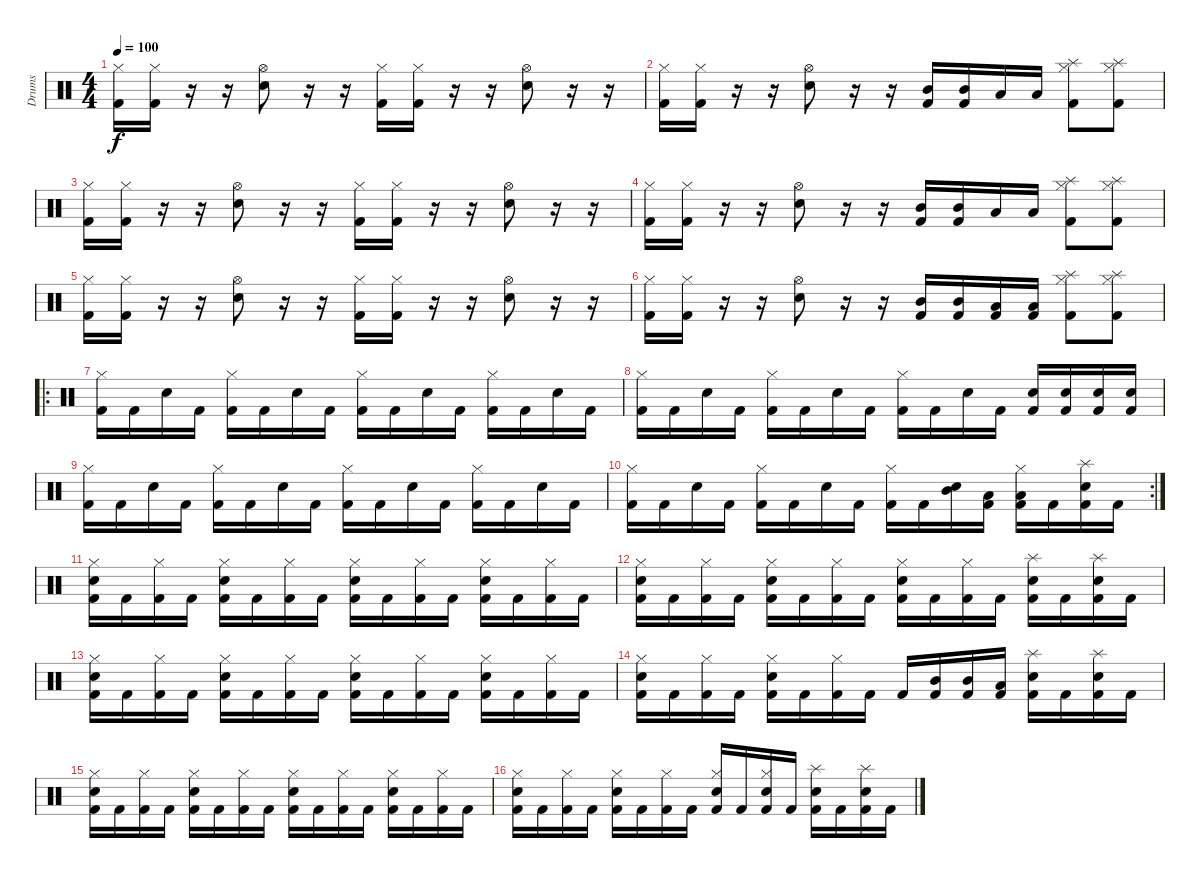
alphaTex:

\track ("Drums" "Drums") {instrument percussion}
\staff {score}
\articulation defaults
\ts (4 4)
\tempo 100
\clef neutral
\ks c
("Kick (hit) 2" "Hi-Hat (closed)").16{dy f} ("Kick (hit) 2" "Hi-Hat (closed)").16 r.16 r.16 ("Snare (hit) 2" "Hi-Hat (open)").8 r.16 r.16 ("Kick (hit) 2" "Hi-Hat (closed)").16 ("Kick (hit) 2" "Hi-Hat (closed)").16 r.16 r.16 ("Snare (hit) 2" "Hi-Hat (open)").8 r.16 r.16 |
("Kick (hit) 2" "Hi-Hat (closed)").16 ("Kick (hit) 2" "Hi-Hat (closed)").16 r.16 r.16 ("Snare (hit) 2" "Hi-Hat (open)").8 r.16 r.16 ("Kick (hit) 2" "Mid Tom (hit)").16 ("Kick (hit) 2" "Mid Tom (hit)").16 "Low Tom (hit)".16 "Low Tom (hit)".16 ("Kick (hit) 2" "Splash (hit)" "Hi-Hat (closed)").8 ("Kick (hit) 2" "Splash (hit)" "Hi-Hat (closed)").8 |
("Kick (hit) 2" "Hi-Hat (closed)").16 ("Kick (hit) 2" "Hi-Hat (closed)").16 r.16 r.16 ("Snare (hit) 2" "Hi-Hat (open)").8 r.16 r.16 ("Kick (hit) 2" "Hi-Hat (closed)").16 ("Kick (hit) 2" "Hi-Hat (closed)").16 r.16 r.16 ("Snare (hit) 2" "Hi-Hat (open)").8 r.16 r.16 |
("Kick (hit) 2" "Hi-Hat (closed)").16 ("Kick (hit) 2" "Hi-Hat (closed)").16 r.16 r.16 ("Snare (hit) 2" "Hi-Hat (open)").8 r.16 r.16 ("Kick (hit) 2" "Mid Tom (hit)").16 ("Kick (hit) 2" "Mid Tom (hit)").16 "Low Tom (hit)".16 "Low Tom (hit)".16 ("Kick (hit) 2" "Splash (hit)" "Hi-Hat (closed)").8 ("Kick (hit) 2" "Splash (hit)" "Hi-Hat (closed)").8 |
("Kick (hit) 2" "Hi-Hat (closed)").16 ("Kick (hit) 2" "Hi-Hat (closed)").16 r.16 r.16 ("Snare (hit) 2" "Hi-Hat (open)").8 r.16 r.16 ("Kick (hit) 2" "Hi-Hat (closed)").16 ("Kick (hit) 2" "Hi-Hat (closed)").16 r.16 r.16 ("Snare (hit) 2" "Hi-Hat (open)").8 r.16 r.16 |
("Kick (hit) 2" "Hi-Hat (closed)").16 ("Kick (hit) 2" "Hi-Hat (closed)").16 r.16 r.16 ("Snare (hit) 2" "Hi-Hat (open)").8 r.16 r.16 ("Kick (hit) 2" "Mid Tom (hit)").16 ("Kick (hit) 2" "Mid Tom (hit)").16 ("Kick (hit) 2" "Low Tom (hit)").16 ("Kick (hit) 2" "Low Tom (hit)").16 ("Kick (hit) 2" "Splash (hit)" "Hi-Hat (closed)").8 ("Kick (hit) 2" "Splash (hit)" "Hi-Hat (closed)").8 |
\ro
("Kick (hit) 2" "Hi-Hat (closed)").16 "Kick (hit) 2".16 "Snare (hit) 2".16 "Kick (hit) 2".16 ("Kick (hit) 2" "Hi-Hat (closed)").16 "Kick (hit) 2".16 "Snare (hit) 2".16 "Kick (hit) 2".16 ("Kick (hit) 2" "Hi-Hat (closed)").16 "Kick (hit) 2".16 "Snare (hit) 2".16 "Kick (hit) 2".16 ("Kick (hit) 2" "Hi-Hat (closed)").16 "Kick (hit) 2".16 "Snare (hit) 2".16 "Kick (hit) 2".16 |
("Kick (hit) 2" "Hi-Hat (closed)").16 "Kick (hit) 2".16 "Snare (hit) 2".16 "Kick (hit) 2".16 ("Kick (hit) 2" "Hi-Hat (closed)").16 "Kick (hit) 2".16 "Snare (hit) 2".16 "Kick (hit) 2".16 ("Kick (hit) 2" "Hi-Hat (closed)").16 "Kick (hit) 2".16 "Snare (hit) 2".16 "Kick (hit) 2".16 ("Kick (hit) 2" "Snare (hit) 2").16 ("Kick (hit) 2" "Snare (hit) 2").16 ("Kick (hit) 2" "Snare (hit) 2").16 ("Kick (hit) 2" "Snare (hit) 2").16 |
("Kick (hit) 2" "Hi-Hat (closed)").16 "Kick (hit) 2".16 "Snare (hit) 2".16 "Kick (hit) 2".16 ("Kick (hit) 2" "Hi-Hat (closed)").16 "Kick (hit) 2".16 "Snare (hit) 2".16 "Kick (hit) 2".16 ("Kick (hit) 2" "Hi-Hat (closed)").16 "Kick (hit) 2".16 "Snare (hit) 2".16 "Kick (hit) 2".16 ("Kick (hit) 2" "Hi-Hat (closed)").16 "Kick (hit) 2".16 "Snare (hit) 2".16 "Kick (hit) 2".16 |
\rc 2
("Kick (hit) 2" "Hi-Hat (closed)").16 "Kick (hit) 2".16 "Snare (hit) 2".16 "Kick (hit) 2".16 ("Kick (hit) 2" "Hi-Hat (closed)").16 "Kick (hit) 2".16 "Snare (hit) 2".16 "Kick (hit) 2".16 ("Kick (hit) 2" "Hi-Hat (closed)").16 "Kick (hit) 2".16 ("Snare (hit) 2" "Mid Tom (hit)").16 ("Kick (hit) 2" "Low Tom (hit)").16 ("Kick (hit) 2" "Low Tom (hit)" "Hi-Hat (closed)").16 "Kick (hit) 2".16 ("Kick (hit) 2" "Splash (hit)" "Snare (hit) 2").16 "Kick (hit) 2".16 |
("Kick (hit) 2" "Hi-Hat (closed)" "Snare (hit) 2").16 "Kick (hit) 2".16 ("Kick (hit) 2" "Hi-Hat (closed)").16 "Kick (hit) 2".16 ("Kick (hit) 2" "Hi-Hat (closed)" "Snare (hit) 2").16 "Kick (hit) 2".16 ("Kick (hit) 2" "Hi-Hat (closed)").16 "Kick (hit) 2".16 ("Kick (hit) 2" "Hi-Hat (closed)" "Snare (hit) 2").16 "Kick (hit) 2".16 ("Kick (hit) 2" "Hi-Hat (closed)").16 "Kick (hit) 2".16 ("Kick (hit) 2" "Hi-Hat (closed)" "Snare (hit) 2").16 "Kick (hit) 2".16 ("Kick (hit) 2" "Hi-Hat (closed)").16 "Kick (hit) 2".16 |
("Kick (hit) 2" "Hi-Hat (closed)" "Snare (hit) 2").16 "Kick (hit) 2".16 ("Kick (hit) 2" "Hi-Hat (closed)").16 "Kick (hit) 2".16 ("Kick (hit) 2" "Hi-Hat (closed)" "Snare (hit) 2").16 "Kick (hit) 2".16 ("Kick (hit) 2" "Hi-Hat (closed)").16 "Kick (hit) 2".16 ("Kick (hit) 2" "Hi-Hat (closed)" "Snare (hit) 2").16 "Kick (hit) 2".16 ("Kick (hit) 2" "Hi-Hat (closed)").16 "Kick (hit) 2".16 ("Kick (hit) 2" "Splash (hit)" "Snare (hit) 2").16 "Kick (hit) 2".16 ("Kick (hit) 2" "Splash (hit)" "Snare (hit) 2").16 "Kick (hit) 2".16 |
("Kick (hit) 2" "Hi-Hat (closed)" "Snare (hit) 2").16 "Kick (hit) 2".16 ("Kick (hit) 2" "Hi-Hat (closed)").16 "Kick (hit) 2".16 ("Kick (hit) 2" "Hi-Hat (closed)" "Snare (hit) 2").16 "Kick (hit) 2".16 ("Kick (hit) 2" "Hi-Hat (closed)").16 "Kick (hit) 2".16 ("Kick (hit) 2" "Hi-Hat (closed)" "Snare (hit) 2").16 "Kick (hit) 2".16 ("Kick (hit) 2" "Hi-Hat (closed)").16 "Kick (hit) 2".16 ("Kick (hit) 2" "Hi-Hat (closed)" "Snare (hit) 2").16 "Kick (hit) 2".16 ("Kick (hit) 2" "Hi-Hat (closed)").16 "Kick (hit) 2".16 |
("Kick (hit) 2" "Hi-Hat (closed)" "Snare (hit) 2").16 "Kick (hit) 2".16 ("Kick (hit) 2" "Hi-Hat (closed)").16 "Kick (hit) 2".16 ("Kick (hit) 2" "Hi-Hat (closed)" "Snare (hit) 2").16 "Kick (hit) 2".16 ("Kick (hit) 2" "Hi-Hat (closed)").16 "Kick (hit) 2".16 "Kick (hit) 2".16 ("Kick (hit) 2" "Mid Tom (hit)").16 ("Kick (hit) 2" "Mid Tom (hit)").16 ("Kick (hit) 2" "Low Tom (hit)").16 ("Kick (hit) 2" "Splash (hit)" "Snare (hit) 2").16 "Kick (hit) 2".16 ("Kick (hit) 2" "Splash (hit)" "Snare (hit) 2").16 "Kick (hit) 2".16 |
("Kick (hit) 2" "Hi-Hat (closed)" "Snare (hit) 2").16 "Kick (hit) 2".16 ("Kick (hit) 2" "Hi-Hat (closed)").16 "Kick (hit) 2".16 ("Kick (hit) 2" "Hi-Hat (closed)" "Snare (hit) 2").16 "Kick (hit) 2".16 ("Kick (hit) 2" "Hi-Hat (closed)").16 "Kick (hit) 2".16 ("Kick (hit) 2" "Hi-Hat (closed)" "Snare (hit) 2").16 "Kick (hit) 2".16 ("Kick (hit) 2" "Hi-Hat (closed)").16 "Kick (hit) 2".16 ("Kick (hit) 2" "Hi-Hat (closed)" "Snare (hit) 2").16 "Kick (hit) 2".16 ("Kick (hit) 2" "Hi-Hat (closed)").16 "Kick (hit) 2".16 |
("Kick (hit) 2" "Hi-Hat (closed)" "Snare (hit) 2").16 "Kick (hit) 2".16 ("Kick (hit) 2" "Hi-Hat (closed)").16 "Kick (hit) 2".16 ("Kick (hit) 2" "Hi-Hat (closed)" "Snare (hit) 2").16 "Kick (hit) 2".16 ("Kick (hit) 2" "Hi-Hat (closed)").16 "Kick (hit) 2".16 ("Kick (hit) 2" "Hi-Hat (closed)" "Snare (hit) 2").16 "Kick (hit) 2".16 ("Kick (hit) 2" "Hi-Hat (closed)" "Snare (hit) 2").16 "Kick (hit) 2".16 ("Kick (hit) 2" "Splash (hit)" "Snare (hit) 2").16 "Kick (hit) 2".16 ("Kick (hit) 2" "Splash (hit)" "Snare (hit) 2").16 "Kick (hit) 2".16
